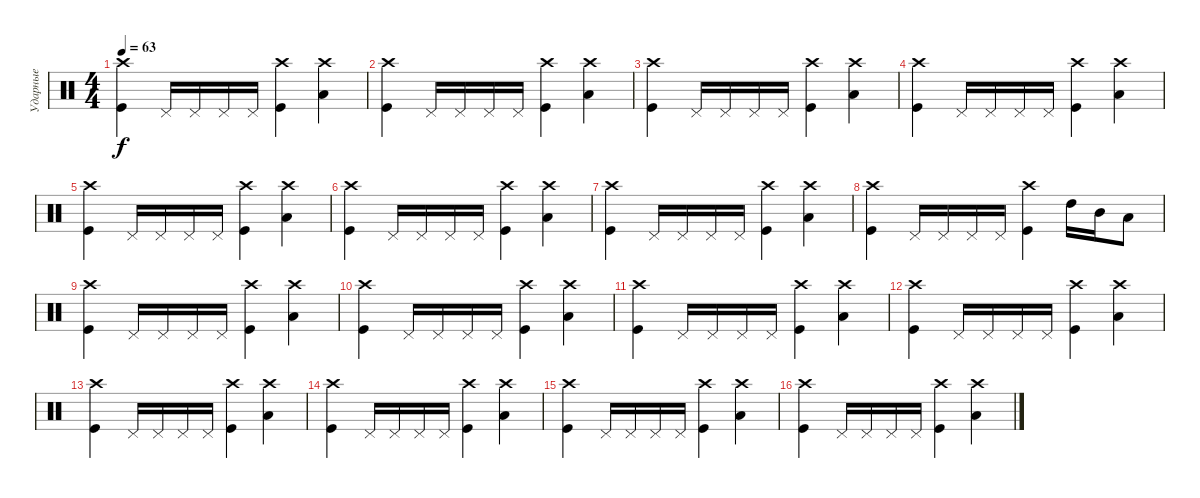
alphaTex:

\track ("Ударные" "Ударные") {instrument percussion}
\staff {score}
\articulation defaults
\ts (4 4)
\tempo 63
\clef neutral
\ks c
("Crash high (hit)" "Kick (hit)").4{dy f} "Pedal Hi-Hat (hit)".16 "Pedal Hi-Hat (hit)".16 "Pedal Hi-Hat (hit)".16 "Pedal Hi-Hat (hit)".16 ("Crash high (hit)" "Kick (hit)").4 ("Crash high (hit)" "Low Tom (hit)").4 |
("Crash high (hit)" "Kick (hit)").4 "Pedal Hi-Hat (hit)".16 "Pedal Hi-Hat (hit)".16 "Pedal Hi-Hat (hit)".16 "Pedal Hi-Hat (hit)".16 ("Crash high (hit)" "Kick (hit)").4 ("Crash high (hit)" "Low Tom (hit)").4 |
("Crash high (hit)" "Kick (hit)").4 "Pedal Hi-Hat (hit)".16 "Pedal Hi-Hat (hit)".16 "Pedal Hi-Hat (hit)".16 "Pedal Hi-Hat (hit)".16 ("Crash high (hit)" "Kick (hit)").4 ("Crash high (hit)" "Low Tom (hit)").4 |
("Crash high (hit)" "Kick (hit)").4 "Pedal Hi-Hat (hit)".16 "Pedal Hi-Hat (hit)".16 "Pedal Hi-Hat (hit)".16 "Pedal Hi-Hat (hit)".16 ("Crash high (hit)" "Kick (hit)").4 ("Crash high (hit)" "Low Tom (hit)").4 |
("Crash high (hit)" "Kick (hit)").4 "Pedal Hi-Hat (hit)".16 "Pedal Hi-Hat (hit)".16 "Pedal Hi-Hat (hit)".16 "Pedal Hi-Hat (hit)".16 ("Crash high (hit)" "Kick (hit)").4 ("Crash high (hit)" "Low Tom (hit)").4 |
("Crash high (hit)" "Kick (hit)").4 "Pedal Hi-Hat (hit)".16 "Pedal Hi-Hat (hit)".16 "Pedal Hi-Hat (hit)".16 "Pedal Hi-Hat (hit)".16 ("Crash high (hit)" "Kick (hit)").4 ("Crash high (hit)" "Low Tom (hit)").4 |
("Crash high (hit)" "Kick (hit)").4 "Pedal Hi-Hat (hit)".16 "Pedal Hi-Hat (hit)".16 "Pedal Hi-Hat (hit)".16 "Pedal Hi-Hat (hit)".16 ("Crash high (hit)" "Kick (hit)").4 ("Crash high (hit)" "Low Tom (hit)").4 |
("Crash high (hit)" "Kick (hit)").4 "Pedal Hi-Hat (hit)".16 "Pedal Hi-Hat (hit)".16 "Pedal Hi-Hat (hit)".16 "Pedal Hi-Hat (hit)".16 ("Crash high (hit)" "Kick (hit)").4 "High Tom (hit)".16 "Mid Tom (hit)".16 "Low Tom (hit)".8 |
("Crash high (hit)" "Kick (hit)").4 "Pedal Hi-Hat (hit)".16 "Pedal Hi-Hat (hit)".16 "Pedal Hi-Hat (hit)".16 "Pedal Hi-Hat (hit)".16 ("Crash high (hit)" "Kick (hit)").4 ("Crash high (hit)" "Low Tom (hit)").4 |
("Crash high (hit)" "Kick (hit)").4 "Pedal Hi-Hat (hit)".16 "Pedal Hi-Hat (hit)".16 "Pedal Hi-Hat (hit)".16 "Pedal Hi-Hat (hit)".16 ("Crash high (hit)" "Kick (hit)").4 ("Crash high (hit)" "Low Tom (hit)").4 |
("Crash high (hit)" "Kick (hit)").4 "Pedal Hi-Hat (hit)".16 "Pedal Hi-Hat (hit)".16 "Pedal Hi-Hat (hit)".16 "Pedal Hi-Hat (hit)".16 ("Crash high (hit)" "Kick (hit)").4 ("Crash high (hit)" "Low Tom (hit)").4 |
("Crash high (hit)" "Kick (hit)").4 "Pedal Hi-Hat (hit)".16 "Pedal Hi-Hat (hit)".16 "Pedal Hi-Hat (hit)".16 "Pedal Hi-Hat (hit)".16 ("Crash high (hit)" "Kick (hit)").4 ("Crash high (hit)" "Low Tom (hit)").4 |
("Crash high (hit)" "Kick (hit)").4 "Pedal Hi-Hat (hit)".16 "Pedal Hi-Hat (hit)".16 "Pedal Hi-Hat (hit)".16 "Pedal Hi-Hat (hit)".16 ("Crash high (hit)" "Kick (hit)").4 ("Crash high (hit)" "Low Tom (hit)").4 |
("Crash high (hit)" "Kick (hit)").4 "Pedal Hi-Hat (hit)".16 "Pedal Hi-Hat (hit)".16 "Pedal Hi-Hat (hit)".16 "Pedal Hi-Hat (hit)".16 ("Crash high (hit)" "Kick (hit)").4 ("Crash high (hit)" "Low Tom (hit)").4 |
("Crash high (hit)" "Kick (hit)").4 "Pedal Hi-Hat (hit)".16 "Pedal Hi-Hat (hit)".16 "Pedal Hi-Hat (hit)".16 "Pedal Hi-Hat (hit)".16 ("Crash high (hit)" "Kick (hit)").4 ("Crash high (hit)" "Low Tom (hit)").4 |
("Crash high (hit)" "Kick (hit)").4 "Pedal Hi-Hat (hit)".16 "Pedal Hi-Hat (hit)".16 "Pedal Hi-Hat (hit)".16 "Pedal Hi-Hat (hit)".16 ("Crash high (hit)" "Kick (hit)").4 ("Crash high (hit)" "Low Tom (hit)").4
